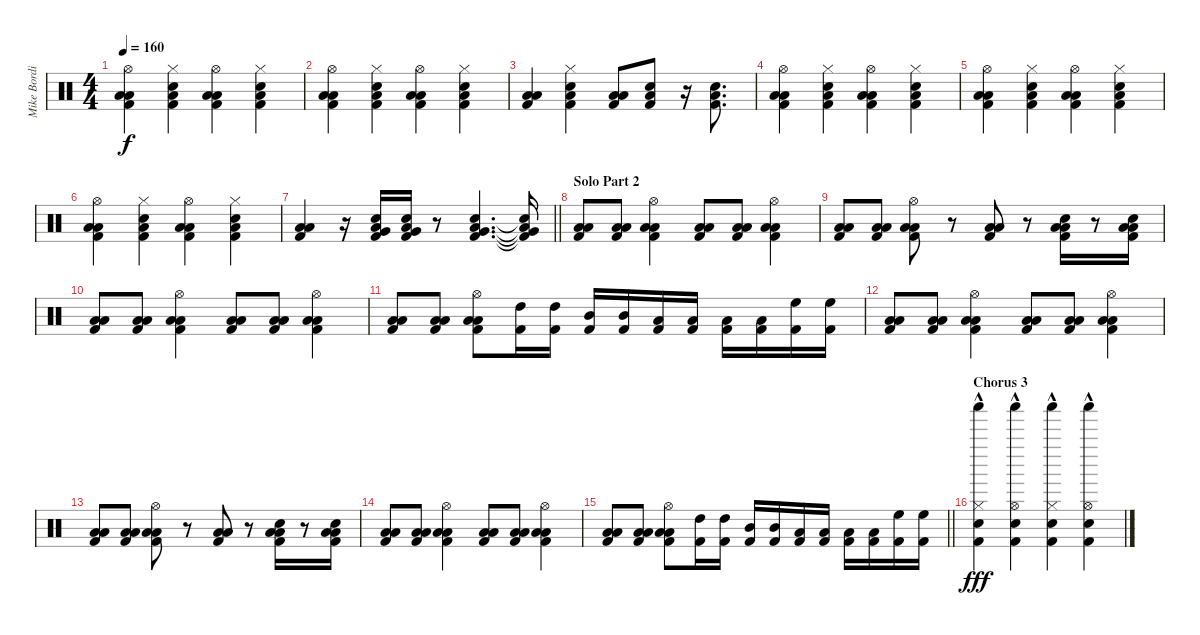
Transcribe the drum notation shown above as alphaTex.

\track ("Mike Bordin - Percussion" "Mike Bordi") {instrument percussion}
\staff {score}
\articulation defaults
\ts (4 4)
\tempo 160
\clef neutral
\ks c
("Hi-Hat (open)" "Low Floor Tom (hit)" "Low Tom (hit)" "Kick (hit) 2").4{dy f volume 16} ("Hi-Hat (closed)" "Snare (hit) 2" "Low Tom (hit)" "Kick (hit) 2").4 ("Hi-Hat (open)" "Low Floor Tom (hit)" "Low Tom (hit)" "Kick (hit) 2").4 ("Hi-Hat (closed)" "Snare (hit) 2" "Low Tom (hit)" "Kick (hit) 2").4 |
("Hi-Hat (open)" "Low Floor Tom (hit)" "Low Tom (hit)" "Kick (hit) 2").4{volume 16} ("Hi-Hat (closed)" "Snare (hit) 2" "Low Tom (hit)" "Kick (hit) 2").4 ("Hi-Hat (open)" "Low Floor Tom (hit)" "Low Tom (hit)" "Kick (hit) 2").4 ("Hi-Hat (closed)" "Snare (hit) 2" "Low Tom (hit)" "Kick (hit) 2").4 |
("Low Floor Tom (hit)" "Low Tom (hit)" "Kick (hit) 2").4 ("Hi-Hat (closed)" "Snare (hit) 2" "Low Tom (hit)" "Kick (hit) 2").4 ("Low Floor Tom (hit)" "Low Tom (hit)" "Kick (hit) 2").8 ("Snare (hit) 2" "Low Tom (hit)" "Kick (hit) 2").8 r.16 ("Snare (hit) 2" "Low Tom (hit)" "Kick (hit) 2").8{d} |
("Hi-Hat (open)" "Low Floor Tom (hit)" "Low Tom (hit)" "Kick (hit) 2").4{volume 16} ("Hi-Hat (closed)" "Snare (hit) 2" "Low Tom (hit)" "Kick (hit) 2").4 ("Hi-Hat (open)" "Low Floor Tom (hit)" "Low Tom (hit)" "Kick (hit) 2").4 ("Hi-Hat (closed)" "Snare (hit) 2" "Low Tom (hit)" "Kick (hit) 2").4 |
("Hi-Hat (open)" "Low Floor Tom (hit)" "Low Tom (hit)" "Kick (hit) 2").4{volume 16} ("Hi-Hat (closed)" "Snare (hit) 2" "Low Tom (hit)" "Kick (hit) 2").4 ("Hi-Hat (open)" "Low Floor Tom (hit)" "Low Tom (hit)" "Kick (hit) 2").4 ("Hi-Hat (closed)" "Snare (hit) 2" "Low Tom (hit)" "Kick (hit) 2").4 |
("Hi-Hat (open)" "Low Floor Tom (hit)" "Low Tom (hit)" "Kick (hit) 2").4{volume 16} ("Hi-Hat (closed)" "Snare (hit) 2" "Low Tom (hit)" "Kick (hit) 2").4 ("Hi-Hat (open)" "Low Floor Tom (hit)" "Low Tom (hit)" "Kick (hit) 2").4 ("Hi-Hat (closed)" "Snare (hit) 2" "Low Tom (hit)" "Kick (hit) 2").4 |
\barLineRight lightlight
("Low Floor Tom (hit)" "Low Tom (hit)" "Kick (hit) 2").4 r.16 ("Snare (hit) 2" "Low Floor Tom (hit)" "Very Low Tom (hit)" "Kick (hit) 2").16 ("Snare (hit) 2" "Low Floor Tom (hit)" "Very Low Tom (hit)" "Kick (hit) 2").16 r.8 ("Snare (hit) 2" "Low Floor Tom (hit)" "Very Low Tom (hit)" "Kick (hit) 2").4{d} ("Snare (hit) 2"{t} "Low Floor Tom (hit)"{t} "Very Low Tom (hit)"{t} "Kick (hit) 2"{t}).16 |
\section ("" "Solo Part 2")
("Low Tom (hit)" "Low Floor Tom (hit)" "Kick (hit) 2").8 ("Low Tom (hit)" "Low Floor Tom (hit)" "Kick (hit) 2").8 ("Hi-Hat (open)" "Low Tom (hit)" "Low Floor Tom (hit)" "Kick (hit) 2").4 ("Low Tom (hit)" "Low Floor Tom (hit)" "Kick (hit) 2").8 ("Low Tom (hit)" "Low Floor Tom (hit)" "Kick (hit) 2").8 ("Hi-Hat (open)" "Low Tom (hit)" "Low Floor Tom (hit)" "Kick (hit) 2").4 |
("Low Tom (hit)" "Low Floor Tom (hit)" "Kick (hit) 2").8 ("Low Tom (hit)" "Low Floor Tom (hit)" "Kick (hit) 2").8 ("Hi-Hat (open)" "Low Tom (hit)" "Low Floor Tom (hit)" "Kick (hit) 2").8 r.8 ("Low Tom (hit)" "Low Floor Tom (hit)" "Kick (hit) 2").8 r.8 ("Snare (hit) 2" "Low Tom (hit)" "Low Floor Tom (hit)" "Kick (hit) 2").16 r.8 ("Snare (hit) 2" "Low Tom (hit)" "Low Floor Tom (hit)" "Kick (hit) 2").16 |
("Low Tom (hit)" "Low Floor Tom (hit)" "Kick (hit) 2").8 ("Low Tom (hit)" "Low Floor Tom (hit)" "Kick (hit) 2").8 ("Hi-Hat (open)" "Low Tom (hit)" "Low Floor Tom (hit)" "Kick (hit) 2").4 ("Low Tom (hit)" "Low Floor Tom (hit)" "Kick (hit) 2").8 ("Low Tom (hit)" "Low Floor Tom (hit)" "Kick (hit) 2").8 ("Hi-Hat (open)" "Low Tom (hit)" "Low Floor Tom (hit)" "Kick (hit) 2").4 |
("Low Tom (hit)" "Low Floor Tom (hit)" "Kick (hit) 2").8 ("Low Tom (hit)" "Low Floor Tom (hit)" "Kick (hit) 2").8 ("Hi-Hat (open)" "Low Tom (hit)" "Low Floor Tom (hit)" "Kick (hit) 2").8 ("High Tom (hit)" "Kick (hit) 2").16 ("High Tom (hit)" "Kick (hit) 2").16 ("Mid Tom (hit)" "Kick (hit) 2").16 ("Mid Tom (hit)" "Kick (hit) 2").16 ("Low Tom (hit)" "Kick (hit) 2").16 ("Low Tom (hit)" "Kick (hit) 2").16 ("Low Floor Tom (hit)" "Kick (hit) 2").16 ("Low Floor Tom (hit)" "Kick (hit) 2").16 ("High Floor Tom (hit)" "Kick (hit) 2").16 ("High Floor Tom (hit)" "Kick (hit) 2").16 |
("Low Tom (hit)" "Low Floor Tom (hit)" "Kick (hit) 2").8 ("Low Tom (hit)" "Low Floor Tom (hit)" "Kick (hit) 2").8 ("Hi-Hat (open)" "Low Tom (hit)" "Low Floor Tom (hit)" "Kick (hit) 2").4 ("Low Tom (hit)" "Low Floor Tom (hit)" "Kick (hit) 2").8 ("Low Tom (hit)" "Low Floor Tom (hit)" "Kick (hit) 2").8 ("Hi-Hat (open)" "Low Tom (hit)" "Low Floor Tom (hit)" "Kick (hit) 2").4 |
("Low Tom (hit)" "Low Floor Tom (hit)" "Kick (hit) 2").8 ("Low Tom (hit)" "Low Floor Tom (hit)" "Kick (hit) 2").8 ("Hi-Hat (open)" "Low Tom (hit)" "Low Floor Tom (hit)" "Kick (hit) 2").8 r.8 ("Low Tom (hit)" "Low Floor Tom (hit)" "Kick (hit) 2").8 r.8 ("Snare (hit) 2" "Low Tom (hit)" "Low Floor Tom (hit)" "Kick (hit) 2").16 r.8 ("Snare (hit) 2" "Low Tom (hit)" "Low Floor Tom (hit)" "Kick (hit) 2").16 |
("Low Tom (hit)" "Low Floor Tom (hit)" "Kick (hit) 2").8 ("Low Tom (hit)" "Low Floor Tom (hit)" "Kick (hit) 2").8 ("Hi-Hat (open)" "Low Tom (hit)" "Low Floor Tom (hit)" "Kick (hit) 2").4 ("Low Tom (hit)" "Low Floor Tom (hit)" "Kick (hit) 2").8 ("Low Tom (hit)" "Low Floor Tom (hit)" "Kick (hit) 2").8 ("Hi-Hat (open)" "Low Tom (hit)" "Low Floor Tom (hit)" "Kick (hit) 2").4 |
\barLineRight lightlight
("Low Tom (hit)" "Low Floor Tom (hit)" "Kick (hit) 2").8 ("Low Tom (hit)" "Low Floor Tom (hit)" "Kick (hit) 2").8 ("Hi-Hat (open)" "Low Tom (hit)" "Low Floor Tom (hit)" "Kick (hit) 2").8 ("High Tom (hit)" "Kick (hit) 2").16 ("High Tom (hit)" "Kick (hit) 2").16 ("Mid Tom (hit)" "Kick (hit) 2").16 ("Mid Tom (hit)" "Kick (hit) 2").16 ("Low Tom (hit)" "Kick (hit) 2").16 ("Low Tom (hit)" "Kick (hit) 2").16 ("Low Floor Tom (hit)" "Kick (hit) 2").16 ("Low Floor Tom (hit)" "Kick (hit) 2").16 ("High Floor Tom (hit)" "Kick (hit) 2").16 ("High Floor Tom (hit)" "Kick (hit) 2").16 |
\section ("" "Chorus 3")
("Shaker (hit)" "Snare (hit) 2" "Hi-Hat (closed)"{hac} "Kick (hit) 2").4{dy fff} ("Shaker (hit)" "Snare (hit) 2" "Hi-Hat (open)"{hac} "Kick (hit) 2").4 ("Shaker (hit)" "Snare (hit) 2" "Hi-Hat (closed)"{hac} "Kick (hit) 2").4 ("Shaker (hit)" "Snare (hit) 2" "Hi-Hat (open)"{hac} "Kick (hit) 2").4
